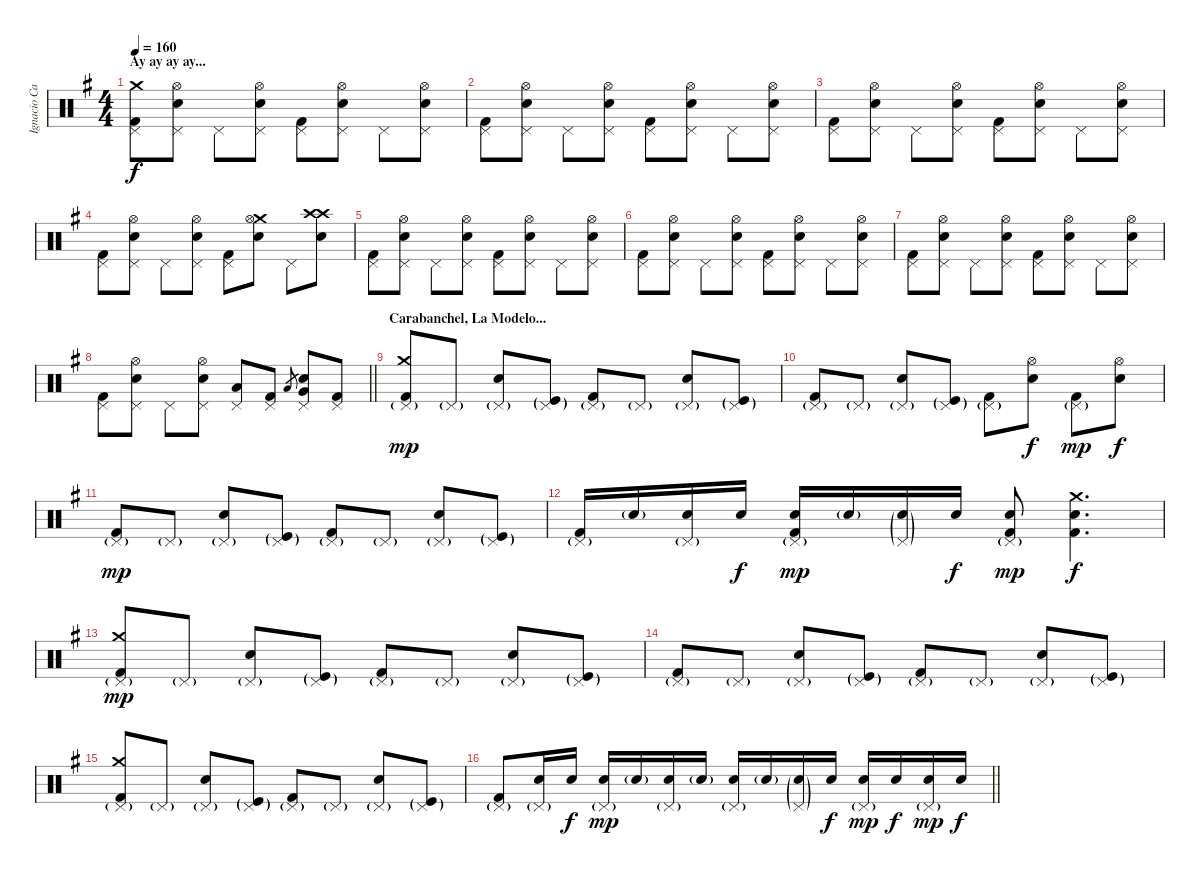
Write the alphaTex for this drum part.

\track ("Ignacio Cantera - Batería" "Ignacio Ca") {instrument percussion}
\staff {score}
\articulation defaults
\ts (4 4)
\section ("" "Ay ay ay ay...")
\tempo 160
\clef neutral
\ks eminor
("Pedal Hi-Hat (hit)" "Crash medium (hit)" "Kick (hit) 2").8{dy f} ("Pedal Hi-Hat (hit)" "Snare (hit) 2" "Hi-Hat (open)").8 "Pedal Hi-Hat (hit)".8 ("Pedal Hi-Hat (hit)" "Snare (hit) 2" "Hi-Hat (open)").8 ("Pedal Hi-Hat (hit)" "Kick (hit) 2").8 ("Pedal Hi-Hat (hit)" "Snare (hit) 2" "Hi-Hat (open)").8 "Pedal Hi-Hat (hit)".8 ("Pedal Hi-Hat (hit)" "Snare (hit) 2" "Hi-Hat (open)").8 |
("Pedal Hi-Hat (hit)" "Kick (hit) 2").8 ("Pedal Hi-Hat (hit)" "Snare (hit) 2" "Hi-Hat (open)").8 "Pedal Hi-Hat (hit)".8 ("Pedal Hi-Hat (hit)" "Snare (hit) 2" "Hi-Hat (open)").8 ("Pedal Hi-Hat (hit)" "Kick (hit) 2").8 ("Pedal Hi-Hat (hit)" "Snare (hit) 2" "Hi-Hat (open)").8 "Pedal Hi-Hat (hit)".8 ("Pedal Hi-Hat (hit)" "Snare (hit) 2" "Hi-Hat (open)").8 |
("Pedal Hi-Hat (hit)" "Kick (hit) 2").8 ("Pedal Hi-Hat (hit)" "Snare (hit) 2" "Hi-Hat (open)").8 "Pedal Hi-Hat (hit)".8 ("Pedal Hi-Hat (hit)" "Snare (hit) 2" "Hi-Hat (open)").8 ("Pedal Hi-Hat (hit)" "Kick (hit) 2").8 ("Pedal Hi-Hat (hit)" "Snare (hit) 2" "Hi-Hat (open)").8 "Pedal Hi-Hat (hit)".8 ("Pedal Hi-Hat (hit)" "Snare (hit) 2" "Hi-Hat (open)").8 |
("Pedal Hi-Hat (hit)" "Kick (hit) 2").8 ("Pedal Hi-Hat (hit)" "Snare (hit) 2" "Hi-Hat (open)").8 "Pedal Hi-Hat (hit)".8 ("Pedal Hi-Hat (hit)" "Snare (hit) 2" "Hi-Hat (open)").8 ("Pedal Hi-Hat (hit)" "Kick (hit) 2").8 ("Crash medium (hit)" "Snare (hit) 2" "Hi-Hat (open)").8 "Pedal Hi-Hat (hit)".8 ("Crash high (hit)" "Snare (hit) 2" "Crash high (hit)").8 |
("Pedal Hi-Hat (hit)" "Kick (hit) 2").8 ("Pedal Hi-Hat (hit)" "Snare (hit) 2" "Hi-Hat (open)").8 "Pedal Hi-Hat (hit)".8 ("Pedal Hi-Hat (hit)" "Snare (hit) 2" "Hi-Hat (open)").8 ("Pedal Hi-Hat (hit)" "Kick (hit) 2").8 ("Pedal Hi-Hat (hit)" "Snare (hit) 2" "Hi-Hat (open)").8 "Pedal Hi-Hat (hit)".8 ("Pedal Hi-Hat (hit)" "Snare (hit) 2" "Hi-Hat (open)").8 |
("Pedal Hi-Hat (hit)" "Kick (hit) 2").8 ("Pedal Hi-Hat (hit)" "Snare (hit) 2" "Hi-Hat (open)").8 "Pedal Hi-Hat (hit)".8 ("Pedal Hi-Hat (hit)" "Snare (hit) 2" "Hi-Hat (open)").8 ("Pedal Hi-Hat (hit)" "Kick (hit) 2").8 ("Pedal Hi-Hat (hit)" "Snare (hit) 2" "Hi-Hat (open)").8 "Pedal Hi-Hat (hit)".8 ("Pedal Hi-Hat (hit)" "Snare (hit) 2" "Hi-Hat (open)").8 |
("Pedal Hi-Hat (hit)" "Kick (hit) 2").8 ("Pedal Hi-Hat (hit)" "Snare (hit) 2" "Hi-Hat (open)").8 "Pedal Hi-Hat (hit)".8 ("Pedal Hi-Hat (hit)" "Snare (hit) 2" "Hi-Hat (open)").8 ("Pedal Hi-Hat (hit)" "Kick (hit) 2").8 ("Pedal Hi-Hat (hit)" "Snare (hit) 2" "Hi-Hat (open)").8 "Pedal Hi-Hat (hit)".8 ("Pedal Hi-Hat (hit)" "Snare (hit) 2" "Hi-Hat (open)").8 |
\barLineRight lightlight
("Pedal Hi-Hat (hit)" "Kick (hit) 2").8 ("Pedal Hi-Hat (hit)" "Snare (hit) 2" "Hi-Hat (open)").8 "Pedal Hi-Hat (hit)".8 ("Pedal Hi-Hat (hit)" "Snare (hit) 2" "Hi-Hat (open)").8 ("Pedal Hi-Hat (hit)" "Low Tom (hit)").8 ("Pedal Hi-Hat (hit)" "Kick (hit) 2").8 "Low Tom (hit)".8{gr} ("Pedal Hi-Hat (hit)" "Snare (hit) 2" "Very Low Tom (hit)").8 ("Pedal Hi-Hat (hit)" "Kick (hit) 2").8 |
\section ("" "Carabanchel, La Modelo...")
("Pedal Hi-Hat (hit)"{g} "Crash medium (hit)" "Kick (hit) 2").8{dy mp} "Pedal Hi-Hat (hit)"{g}.8 ("Pedal Hi-Hat (hit)"{g} "Snare (hit) 2").8 ("Pedal Hi-Hat (hit)"{g} "Kick (hit)"{g}).8 ("Pedal Hi-Hat (hit)"{g} "Kick (hit) 2").8 "Pedal Hi-Hat (hit)"{g}.8 ("Pedal Hi-Hat (hit)"{g} "Snare (hit) 2").8 ("Pedal Hi-Hat (hit)"{g} "Kick (hit)"{g}).8 |
("Pedal Hi-Hat (hit)"{g} "Kick (hit) 2").8 "Pedal Hi-Hat (hit)"{g}.8 ("Pedal Hi-Hat (hit)"{g} "Snare (hit) 2").8 ("Pedal Hi-Hat (hit)"{g} "Kick (hit)"{g}).8 ("Pedal Hi-Hat (hit)"{g} "Kick (hit) 2").8 ("Hi-Hat (open)" "Snare (hit) 2").8{dy f} ("Pedal Hi-Hat (hit)"{g} "Kick (hit) 2").8{dy mp} ("Hi-Hat (open)" "Snare (hit) 2").8{dy f} |
("Pedal Hi-Hat (hit)"{g} "Kick (hit) 2").8{dy mp} "Pedal Hi-Hat (hit)"{g}.8 ("Pedal Hi-Hat (hit)"{g} "Snare (hit) 2").8 ("Pedal Hi-Hat (hit)"{g} "Kick (hit)"{g}).8 ("Pedal Hi-Hat (hit)"{g} "Kick (hit) 2").8 "Pedal Hi-Hat (hit)"{g}.8 ("Pedal Hi-Hat (hit)"{g} "Snare (hit) 2").8 ("Pedal Hi-Hat (hit)"{g} "Kick (hit)"{g}).8 |
("Pedal Hi-Hat (hit)"{g} "Kick (hit) 2").16 "Electric Snare (hit)"{g}.16 ("Pedal Hi-Hat (hit)"{g} "Electric Snare (hit)").16 "Electric Snare (hit)".16{dy f} ("Pedal Hi-Hat (hit)"{g} "Electric Snare (hit)" "Kick (hit) 2").16{dy mp} "Electric Snare (hit)"{g}.16 ("Pedal Hi-Hat (hit)"{g} "Electric Snare (hit)"{g}).16 "Electric Snare (hit)".16{dy f} ("Pedal Hi-Hat (hit)"{g} "Electric Snare (hit)" "Kick (hit) 2").8{dy mp} ("Crash medium (hit)" "Snare (hit) 2" "Kick (hit) 2").4{d dy f} |
("Pedal Hi-Hat (hit)"{g} "Crash medium (hit)" "Kick (hit) 2").8{dy mp} "Pedal Hi-Hat (hit)"{g}.8 ("Pedal Hi-Hat (hit)"{g} "Snare (hit) 2").8 ("Pedal Hi-Hat (hit)"{g} "Kick (hit)"{g}).8 ("Pedal Hi-Hat (hit)"{g} "Kick (hit) 2").8 "Pedal Hi-Hat (hit)"{g}.8 ("Pedal Hi-Hat (hit)"{g} "Snare (hit) 2").8 ("Pedal Hi-Hat (hit)"{g} "Kick (hit)"{g}).8 |
("Pedal Hi-Hat (hit)"{g} "Kick (hit) 2").8 "Pedal Hi-Hat (hit)"{g}.8 ("Pedal Hi-Hat (hit)"{g} "Snare (hit) 2").8 ("Pedal Hi-Hat (hit)"{g} "Kick (hit)"{g}).8 ("Pedal Hi-Hat (hit)"{g} "Kick (hit) 2").8 "Pedal Hi-Hat (hit)"{g}.8 ("Pedal Hi-Hat (hit)"{g} "Snare (hit) 2").8 ("Pedal Hi-Hat (hit)"{g} "Kick (hit)"{g}).8 |
("Pedal Hi-Hat (hit)"{g} "Crash medium (hit)" "Kick (hit) 2").8 "Pedal Hi-Hat (hit)"{g}.8 ("Pedal Hi-Hat (hit)"{g} "Snare (hit) 2").8 ("Pedal Hi-Hat (hit)"{g} "Kick (hit)"{g}).8 ("Pedal Hi-Hat (hit)"{g} "Kick (hit) 2").8 "Pedal Hi-Hat (hit)"{g}.8 ("Pedal Hi-Hat (hit)"{g} "Snare (hit) 2").8 ("Pedal Hi-Hat (hit)"{g} "Kick (hit)"{g}).8 |
\barLineRight lightlight
("Pedal Hi-Hat (hit)"{g} "Kick (hit) 2").8 ("Pedal Hi-Hat (hit)"{g} "Electric Snare (hit)").16 "Electric Snare (hit)".16{dy f} ("Pedal Hi-Hat (hit)"{g} "Electric Snare (hit)").16{dy mp} "Electric Snare (hit)"{g}.16 ("Pedal Hi-Hat (hit)"{g} "Electric Snare (hit)").16 "Electric Snare (hit)"{g}.16 ("Pedal Hi-Hat (hit)"{g} "Electric Snare (hit)").16 "Electric Snare (hit)"{g}.16 ("Pedal Hi-Hat (hit)"{g} "Electric Snare (hit)"{g}).16 "Electric Snare (hit)".16{dy f} ("Pedal Hi-Hat (hit)"{g} "Electric Snare (hit)").16{dy mp} "Electric Snare (hit)".16{dy f} ("Pedal Hi-Hat (hit)"{g} "Electric Snare (hit)").16{dy mp} "Electric Snare (hit)".16{dy f}
